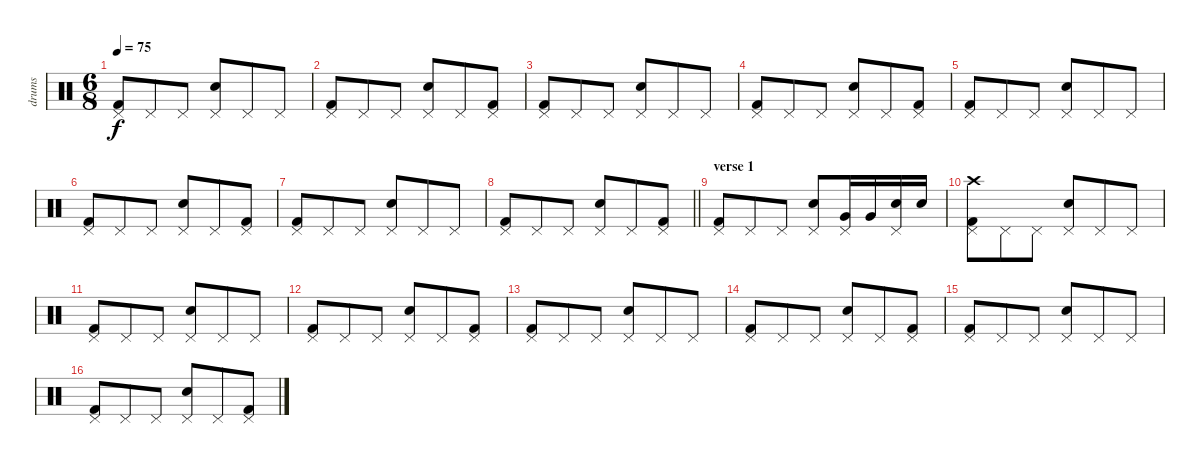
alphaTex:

\track ("drums" "drums") {instrument percussion}
\staff {score}
\articulation defaults
\ts (6 8)
\tempo 75
\clef neutral
\ks c
("Kick (hit) 2" "Pedal Hi-Hat (hit)").8{dy f} "Pedal Hi-Hat (hit)".8 "Pedal Hi-Hat (hit)".8 ("Electric Snare (hit)" "Pedal Hi-Hat (hit)").8 "Pedal Hi-Hat (hit)".8 "Pedal Hi-Hat (hit)".8 |
("Kick (hit) 2" "Pedal Hi-Hat (hit)").8 "Pedal Hi-Hat (hit)".8 "Pedal Hi-Hat (hit)".8 ("Electric Snare (hit)" "Pedal Hi-Hat (hit)").8 "Pedal Hi-Hat (hit)".8 ("Kick (hit) 2" "Pedal Hi-Hat (hit)").8 |
("Kick (hit) 2" "Pedal Hi-Hat (hit)").8 "Pedal Hi-Hat (hit)".8 "Pedal Hi-Hat (hit)".8 ("Electric Snare (hit)" "Pedal Hi-Hat (hit)").8 "Pedal Hi-Hat (hit)".8 "Pedal Hi-Hat (hit)".8 |
("Kick (hit) 2" "Pedal Hi-Hat (hit)").8 "Pedal Hi-Hat (hit)".8 "Pedal Hi-Hat (hit)".8 ("Electric Snare (hit)" "Pedal Hi-Hat (hit)").8 "Pedal Hi-Hat (hit)".8 ("Kick (hit) 2" "Pedal Hi-Hat (hit)").8 |
("Kick (hit) 2" "Pedal Hi-Hat (hit)").8 "Pedal Hi-Hat (hit)".8 "Pedal Hi-Hat (hit)".8 ("Electric Snare (hit)" "Pedal Hi-Hat (hit)").8 "Pedal Hi-Hat (hit)".8 "Pedal Hi-Hat (hit)".8 |
("Kick (hit) 2" "Pedal Hi-Hat (hit)").8 "Pedal Hi-Hat (hit)".8 "Pedal Hi-Hat (hit)".8 ("Electric Snare (hit)" "Pedal Hi-Hat (hit)").8 "Pedal Hi-Hat (hit)".8 ("Kick (hit) 2" "Pedal Hi-Hat (hit)").8 |
("Kick (hit) 2" "Pedal Hi-Hat (hit)").8 "Pedal Hi-Hat (hit)".8 "Pedal Hi-Hat (hit)".8 ("Electric Snare (hit)" "Pedal Hi-Hat (hit)").8 "Pedal Hi-Hat (hit)".8 "Pedal Hi-Hat (hit)".8 |
\barLineRight lightlight
("Kick (hit) 2" "Pedal Hi-Hat (hit)").8 "Pedal Hi-Hat (hit)".8 "Pedal Hi-Hat (hit)".8 ("Electric Snare (hit)" "Pedal Hi-Hat (hit)").8 "Pedal Hi-Hat (hit)".8 ("Kick (hit) 2" "Pedal Hi-Hat (hit)").8 |
\section ("" "verse 1")
("Kick (hit) 2" "Pedal Hi-Hat (hit)").8 "Pedal Hi-Hat (hit)".8 "Pedal Hi-Hat (hit)".8 ("Electric Snare (hit)" "Pedal Hi-Hat (hit)").8 ("Very Low Tom (hit)" "Pedal Hi-Hat (hit)").16 "Very Low Tom (hit)".16 ("Electric Snare (hit)" "Pedal Hi-Hat (hit)").16 "Electric Snare (hit)".16 |
("Kick (hit) 2" "Pedal Hi-Hat (hit)" "Crash high (hit)").8 "Pedal Hi-Hat (hit)".8 "Pedal Hi-Hat (hit)".8 ("Electric Snare (hit)" "Pedal Hi-Hat (hit)").8 "Pedal Hi-Hat (hit)".8 "Pedal Hi-Hat (hit)".8 |
("Kick (hit) 2" "Pedal Hi-Hat (hit)").8 "Pedal Hi-Hat (hit)".8 "Pedal Hi-Hat (hit)".8 ("Electric Snare (hit)" "Pedal Hi-Hat (hit)").8 "Pedal Hi-Hat (hit)".8 "Pedal Hi-Hat (hit)".8 |
("Kick (hit) 2" "Pedal Hi-Hat (hit)").8 "Pedal Hi-Hat (hit)".8 "Pedal Hi-Hat (hit)".8 ("Electric Snare (hit)" "Pedal Hi-Hat (hit)").8 "Pedal Hi-Hat (hit)".8 ("Kick (hit) 2" "Pedal Hi-Hat (hit)").8 |
("Kick (hit) 2" "Pedal Hi-Hat (hit)").8 "Pedal Hi-Hat (hit)".8 "Pedal Hi-Hat (hit)".8 ("Electric Snare (hit)" "Pedal Hi-Hat (hit)").8 "Pedal Hi-Hat (hit)".8 "Pedal Hi-Hat (hit)".8 |
("Kick (hit) 2" "Pedal Hi-Hat (hit)").8 "Pedal Hi-Hat (hit)".8 "Pedal Hi-Hat (hit)".8 ("Electric Snare (hit)" "Pedal Hi-Hat (hit)").8 "Pedal Hi-Hat (hit)".8 ("Kick (hit) 2" "Pedal Hi-Hat (hit)").8 |
("Kick (hit) 2" "Pedal Hi-Hat (hit)").8 "Pedal Hi-Hat (hit)".8 "Pedal Hi-Hat (hit)".8 ("Electric Snare (hit)" "Pedal Hi-Hat (hit)").8 "Pedal Hi-Hat (hit)".8 "Pedal Hi-Hat (hit)".8 |
("Kick (hit) 2" "Pedal Hi-Hat (hit)").8 "Pedal Hi-Hat (hit)".8 "Pedal Hi-Hat (hit)".8 ("Electric Snare (hit)" "Pedal Hi-Hat (hit)").8 "Pedal Hi-Hat (hit)".8 ("Kick (hit) 2" "Pedal Hi-Hat (hit)").8
